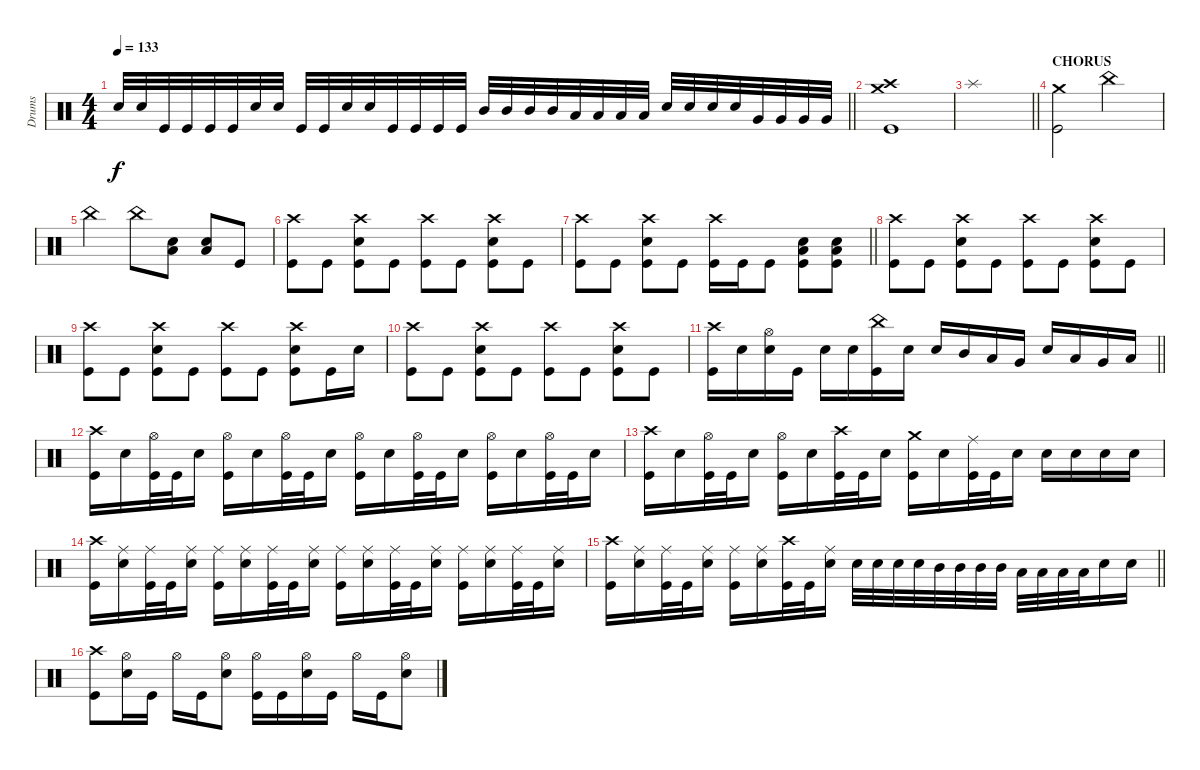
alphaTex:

\track ("Drums" "Drums") {instrument percussion}
\staff
\articulation defaults
\ts (4 4)
\tempo 133
\clef neutral
\barLineRight lightlight
\ks c "Electric Snare (hit)".32{dy f} "Electric Snare (hit)".32 "Kick (hit)".32 "Kick (hit)".32 "Kick (hit)".32 "Kick (hit)".32 "Electric Snare (hit)".32 "Electric Snare (hit)".32 "Kick (hit)".32 "Kick (hit)".32 "Electric Snare (hit)".32 "Electric Snare (hit)".32 "Kick (hit)".32 "Kick (hit)".32 "Kick (hit)".32 "Kick (hit)".32 "Mid Tom (hit)".32 "Mid Tom (hit)".32 "Mid Tom (hit)".32 "Mid Tom (hit)".32 "Low Tom (hit)".32 "Low Tom (hit)".32 "Low Tom (hit)".32 "Low Tom (hit)".32 "Electric Snare (hit)".32 "Electric Snare (hit)".32 "Electric Snare (hit)".32 "Electric Snare (hit)".32 "Very Low Tom (hit)".32 "Very Low Tom (hit)".32 "Very Low Tom (hit)".32 "Very Low Tom (hit)".32
|
("Crash high (hit)" "Crash medium (hit)" "Kick (hit)").1 |
\barLineRight lightlight "Splash (hit)".1
|
\section ("" "CHORUS")
("Crash medium (hit)" "Kick (hit)").2 "China (hit)".2 |
"China (hit)".2 "China (hit)".8 ("Low Floor Tom (hit)" "Electric Snare (hit)").8 ("Low Floor Tom (hit)" "Electric Snare (hit)").8 "Kick (hit)".8 |
("Crash high (hit)" "Kick (hit)").8 "Kick (hit)".8 ("Crash high (hit)" "Electric Snare (hit)" "Kick (hit)").8 "Kick (hit)".8 ("Crash high (hit)" "Kick (hit)").8 "Kick (hit)".8 ("Crash high (hit)" "Electric Snare (hit)" "Kick (hit)").8 "Kick (hit)".8 |
\barLineRight lightlight
("Crash high (hit)" "Kick (hit)").8 "Kick (hit)".8 ("Crash high (hit)" "Electric Snare (hit)" "Kick (hit)").8 "Kick (hit)".8 ("Crash high (hit)" "Kick (hit)").16 "Kick (hit)".16 "Kick (hit)".8 ("Low Floor Tom (hit)" "Electric Snare (hit)" "Kick (hit)").8 ("Low Floor Tom (hit)" "Electric Snare (hit)" "Kick (hit)").8 |
("Crash high (hit)" "Kick (hit)").8 "Kick (hit)".8 ("Crash high (hit)" "Electric Snare (hit)" "Kick (hit)").8 "Kick (hit)".8 ("Crash high (hit)" "Kick (hit)").8 "Kick (hit)".8 ("Crash high (hit)" "Electric Snare (hit)" "Kick (hit)").8 "Kick (hit)".8 |
("Crash high (hit)" "Kick (hit)").8 "Kick (hit)".8 ("Crash high (hit)" "Electric Snare (hit)" "Kick (hit)").8 "Kick (hit)".8 ("Crash high (hit)" "Kick (hit)").8 "Kick (hit)".8 ("Crash high (hit)" "Electric Snare (hit)" "Kick (hit)").8 "Kick (hit)".16 "Electric Snare (hit)".16 |
("Crash high (hit)" "Kick (hit)").8 "Kick (hit)".8 ("Crash high (hit)" "Electric Snare (hit)" "Kick (hit)").8 "Kick (hit)".8 ("Crash high (hit)" "Kick (hit)").8 "Kick (hit)".8 ("Crash high (hit)" "Electric Snare (hit)" "Kick (hit)").8 "Kick (hit)".8 |
\barLineRight lightlight
("Crash high (hit)" "Kick (hit)").16 "Electric Snare (hit)".16 ("Hi-Hat (open)" "Electric Snare (hit)").16 "Kick (hit)".16 "Electric Snare (hit)".16 "Electric Snare (hit)".16 ("China (hit)" "Kick (hit)").16 "Electric Snare (hit)".16 "Electric Snare (hit)".16 "Mid Tom (hit)".16 "Low Tom (hit)".16 "Very Low Tom (hit)".16 "Electric Snare (hit)".16 "Low Tom (hit)".16 "Very Low Tom (hit)".16 "Low Floor Tom (hit)".16 |
("Crash high (hit)" "Kick (hit)").16 "Electric Snare (hit)".16 ("Hi-Hat (open)" "Kick (hit)").32 "Kick (hit)".32 "Electric Snare (hit)".16 ("Hi-Hat (open)" "Kick (hit)").16 "Electric Snare (hit)".16 ("Hi-Hat (open)" "Kick (hit)").32 "Kick (hit)".32 "Electric Snare (hit)".16 ("Hi-Hat (open)" "Kick (hit)").16 "Electric Snare (hit)".16 ("Hi-Hat (open)" "Kick (hit)").32 "Kick (hit)".32 "Electric Snare (hit)".16 ("Hi-Hat (open)" "Kick (hit)").16 "Electric Snare (hit)".16 ("Hi-Hat (open)" "Kick (hit)").32 "Kick (hit)".32 "Electric Snare (hit)".16 |
("Crash high (hit)" "Kick (hit)").16 "Electric Snare (hit)".16 ("Hi-Hat (open)" "Kick (hit)").32 "Kick (hit)".32 "Electric Snare (hit)".16 ("Hi-Hat (open)" "Kick (hit)").16 "Electric Snare (hit)".16 ("Crash high (hit)" "Kick (hit)").32 "Kick (hit)".32 "Electric Snare (hit)".16 ("Crash medium (hit)" "Kick (hit)").16 "Electric Snare (hit)".16 ("Ride (middle)" "Kick (hit)").32 "Kick (hit)".32 "Electric Snare (hit)".16 "Electric Snare (hit)".16 "Electric Snare (hit)".16 "Electric Snare (hit)".16 "Electric Snare (hit)".16 |
("Crash high (hit)" "Kick (hit)").16 ("Ride (middle)" "Electric Snare (hit)").16 ("Ride (middle)" "Kick (hit)").32 "Kick (hit)".32 ("Ride (middle)" "Electric Snare (hit)").16 ("Ride (middle)" "Kick (hit)").16 ("Ride (middle)" "Electric Snare (hit)").16 ("Ride (middle)" "Kick (hit)").32 "Kick (hit)".32 ("Ride (middle)" "Electric Snare (hit)").16 ("Ride (middle)" "Kick (hit)").16 ("Ride (middle)" "Electric Snare (hit)").16 ("Ride (middle)" "Kick (hit)").32 "Kick (hit)".32 ("Ride (middle)" "Electric Snare (hit)").16 ("Ride (middle)" "Kick (hit)").16 ("Ride (middle)" "Electric Snare (hit)").16 ("Ride (middle)" "Kick (hit)").32 "Kick (hit)".32 ("Ride (middle)" "Electric Snare (hit)").16 |
\barLineRight lightlight
("Crash high (hit)" "Kick (hit)").16 ("Ride (middle)" "Electric Snare (hit)").16 ("Ride (middle)" "Kick (hit)").32 "Kick (hit)".32 ("Ride (middle)" "Electric Snare (hit)").16 ("Ride (middle)" "Kick (hit)").16 ("Ride (middle)" "Electric Snare (hit)").16 ("Crash high (hit)" "Kick (hit)").32 "Kick (hit)".32 ("Ride (middle)" "Electric Snare (hit)").16 "Electric Snare (hit)".32 "Electric Snare (hit)".32 "Electric Snare (hit)".32 "Electric Snare (hit)".32 "Mid Tom (hit)".32 "Mid Tom (hit)".32 "Mid Tom (hit)".32 "Mid Tom (hit)".32 "Low Tom (hit)".32 "Low Tom (hit)".32 "Low Tom (hit)".32 "Low Tom (hit)".32 "Electric Snare (hit)".16 "Electric Snare (hit)".16 |
("Crash high (hit)" "Kick (hit)").8 ("Hi-Hat (open)" "Electric Snare (hit)").16 "Kick (hit)".16 "Hi-Hat (open)".16 "Kick (hit)".16 ("Hi-Hat (open)" "Electric Snare (hit)").8 ("Hi-Hat (open)" "Kick (hit)").16 "Kick (hit)".16 ("Hi-Hat (open)" "Electric Snare (hit)").16 "Kick (hit)".16 "Hi-Hat (open)".16 "Kick (hit)".16 ("Hi-Hat (open)" "Electric Snare (hit)").8
